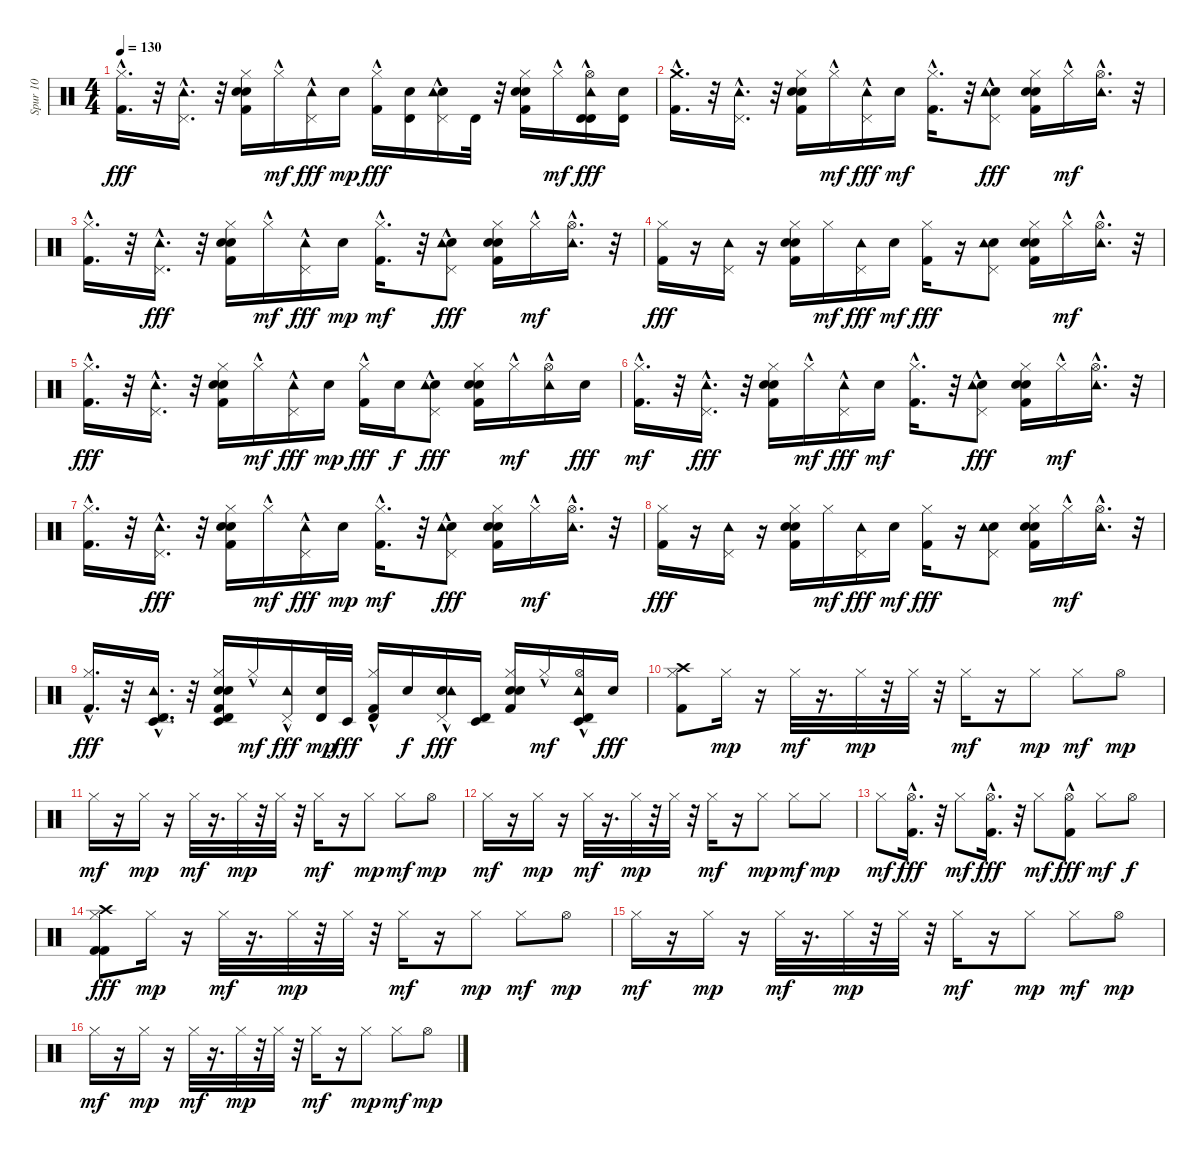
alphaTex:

\track ("Spur 10" "Spur 10") {instrument percussion}
\staff {score}
\articulation defaults
\ts (4 4)
\tempo 130
\clef neutral
\ks c
("Hi-Hat (closed)"{hac} "Kick (hit) 2").16{d dy fff} r.32 ("Tambourine (hit)"{hac} "Pedal Hi-Hat (hit)"{hac}).16{d} r.32 ("Hand Clap (hit)" "Hi-Hat (closed)" "Snare (hit) 2" "Kick (hit) 2").16 "Hi-Hat (closed)"{hac}.16{dy mf} ("Tambourine (hit)"{hac} "Pedal Hi-Hat (hit)"{hac}).16{dy fff} "Electric Snare (hit)".16{dy mp} ("Hi-Hat (closed)"{hac} "Kick (hit) 2").16{dy fff} ("Snare (hit) 2" "Timbale high (hit)").16 ("Hand Clap (hit)" "Tambourine (hit)"{hac} "Pedal Hi-Hat (hit)"{hac}).16 "Timbale high (hit)".32 r.32 ("Hand Clap (hit)" "Snare (hit) 2" "Hi-Hat (closed)" "Kick (hit) 2").16 "Hi-Hat (closed)"{hac}.16{dy mf} ("Timbale high (hit)" "Tambourine (hit)"{hac} "Hi-Hat (open)"{hac} "Timbale high (hit)").16{dy fff} ("Snare (hit) 2" "Timbale high (hit)").16 |
("Crash medium (hit)"{hac} "Kick (hit) 2").16{d} r.32 ("Tambourine (hit)"{hac} "Pedal Hi-Hat (hit)"{hac}).16{d} r.32 ("Hand Clap (hit)" "Kick (hit) 2" "Hi-Hat (closed)" "Snare (hit) 2").16 "Hi-Hat (closed)"{hac}.16{dy mf} ("Tambourine (hit)"{hac} "Pedal Hi-Hat (hit)"{hac}).16{dy fff} "Electric Snare (hit)".16{dy mf} ("Kick (hit) 2" "Hi-Hat (closed)"{hac}).16{d} r.32 ("Hand Clap (hit)" "Tambourine (hit)"{hac} "Pedal Hi-Hat (hit)"{hac}).8{dy fff} ("Hand Clap (hit)" "Kick (hit) 2" "Hi-Hat (closed)" "Snare (hit) 2").16 "Hi-Hat (closed)"{hac}.16{dy mf} ("Tambourine (hit)"{hac} "Hi-Hat (open)"{hac}).16{d} r.32 |
("Kick (hit) 2" "Hi-Hat (closed)"{hac}).16{d} r.32 ("Tambourine (hit)"{hac} "Pedal Hi-Hat (hit)"{hac}).16{d dy fff} r.32 ("Hand Clap (hit)" "Hi-Hat (closed)" "Snare (hit) 2" "Kick (hit) 2").16 "Hi-Hat (closed)"{hac}.16{dy mf} ("Tambourine (hit)"{hac} "Pedal Hi-Hat (hit)"{hac}).16{dy fff} "Electric Snare (hit)".16{dy mp} ("Kick (hit) 2" "Hi-Hat (closed)"{hac}).16{d dy mf} r.32 ("Hand Clap (hit)" "Tambourine (hit)"{hac} "Pedal Hi-Hat (hit)"{hac}).8{dy fff} ("Hand Clap (hit)" "Hi-Hat (closed)" "Kick (hit) 2" "Snare (hit) 2").16 "Hi-Hat (closed)"{hac}.16{dy mf} ("Tambourine (hit)"{hac} "Hi-Hat (open)"{hac}).16{d} r.32 |
("Hi-Hat (closed)" "Kick (hit) 2").16{dy fff} r.16 ("Tambourine (hit)" "Pedal Hi-Hat (hit)").16 r.16 ("Hand Clap (hit)" "Snare (hit) 2" "Hi-Hat (closed)" "Kick (hit) 2").16 "Hi-Hat (closed)".16{dy mf} ("Tambourine (hit)" "Pedal Hi-Hat (hit)").16{dy fff} "Electric Snare (hit)".16{dy mf} ("Hi-Hat (closed)" "Kick (hit) 2").16{dy fff} r.16 ("Hand Clap (hit)" "Tambourine (hit)" "Pedal Hi-Hat (hit)").8 ("Hand Clap (hit)" "Snare (hit) 2" "Hi-Hat (closed)" "Kick (hit) 2").16 "Hi-Hat (closed)"{hac}.16{dy mf} ("Tambourine (hit)" "Hi-Hat (open)"{hac}).16{d} r.32 |
("Hi-Hat (closed)"{hac} "Kick (hit) 2").16{d dy fff} r.32 ("Tambourine (hit)"{hac} "Pedal Hi-Hat (hit)"{hac}).16{d} r.32 ("Hand Clap (hit)" "Hi-Hat (closed)" "Snare (hit) 2" "Kick (hit) 2").16 "Hi-Hat (closed)"{hac}.16{dy mf} ("Tambourine (hit)"{hac} "Pedal Hi-Hat (hit)"{hac}).16{dy fff} "Electric Snare (hit)".16{dy mp} ("Hi-Hat (closed)"{hac} "Kick (hit) 2").16{dy fff} "Snare (hit) 2".16{dy f} ("Hand Clap (hit)" "Tambourine (hit)"{hac} "Pedal Hi-Hat (hit)"{hac}).8{dy fff} ("Hand Clap (hit)" "Snare (hit) 2" "Hi-Hat (closed)" "Kick (hit) 2").16 "Hi-Hat (closed)"{hac}.16{dy mf} ("Tambourine (hit)"{hac} "Hi-Hat (open)"{hac}).16 "Snare (hit) 2".16{dy fff} |
("Kick (hit) 2" "Hi-Hat (closed)"{hac}).16{d dy mf} r.32 ("Tambourine (hit)"{hac} "Pedal Hi-Hat (hit)"{hac}).16{d dy fff} r.32 ("Hand Clap (hit)" "Kick (hit) 2" "Hi-Hat (closed)" "Snare (hit) 2").16 "Hi-Hat (closed)"{hac}.16{dy mf} ("Tambourine (hit)"{hac} "Pedal Hi-Hat (hit)"{hac}).16{dy fff} "Electric Snare (hit)".16{dy mf} ("Kick (hit) 2" "Hi-Hat (closed)"{hac}).16{d} r.32 ("Hand Clap (hit)" "Tambourine (hit)"{hac} "Pedal Hi-Hat (hit)"{hac}).8{dy fff} ("Hand Clap (hit)" "Kick (hit) 2" "Hi-Hat (closed)" "Snare (hit) 2").16 "Hi-Hat (closed)"{hac}.16{dy mf} ("Tambourine (hit)"{hac} "Hi-Hat (open)"{hac}).16{d} r.32 |
("Kick (hit) 2" "Hi-Hat (closed)"{hac}).16{d} r.32 ("Tambourine (hit)"{hac} "Pedal Hi-Hat (hit)"{hac}).16{d dy fff} r.32 ("Hand Clap (hit)" "Hi-Hat (closed)" "Snare (hit) 2" "Kick (hit) 2").16 "Hi-Hat (closed)"{hac}.16{dy mf} ("Tambourine (hit)"{hac} "Pedal Hi-Hat (hit)"{hac}).16{dy fff} "Electric Snare (hit)".16{dy mp} ("Kick (hit) 2" "Hi-Hat (closed)"{hac}).16{d dy mf} r.32 ("Hand Clap (hit)" "Tambourine (hit)"{hac} "Pedal Hi-Hat (hit)"{hac}).8{dy fff} ("Hand Clap (hit)" "Hi-Hat (closed)" "Kick (hit) 2" "Snare (hit) 2").16 "Hi-Hat (closed)"{hac}.16{dy mf} ("Tambourine (hit)"{hac} "Hi-Hat (open)"{hac}).16{d} r.32 |
("Hi-Hat (closed)" "Kick (hit) 2").16{dy fff} r.16 ("Tambourine (hit)" "Pedal Hi-Hat (hit)").16 r.16 ("Hand Clap (hit)" "Snare (hit) 2" "Hi-Hat (closed)" "Kick (hit) 2").16 "Hi-Hat (closed)".16{dy mf} ("Tambourine (hit)" "Pedal Hi-Hat (hit)").16{dy fff} "Electric Snare (hit)".16{dy mf} ("Hi-Hat (closed)" "Kick (hit) 2").16{dy fff} r.16 ("Hand Clap (hit)" "Tambourine (hit)" "Pedal Hi-Hat (hit)").8 ("Hand Clap (hit)" "Snare (hit) 2" "Hi-Hat (closed)" "Kick (hit) 2").16 "Hi-Hat (closed)"{hac}.16{dy mf} ("Tambourine (hit)" "Hi-Hat (open)"{hac}).16{d} r.32 |
("Hi-Hat (closed)"{hac} "Kick (hit) 2").16{d dy fff} r.32 ("Tambourine (hit)"{hac} "Pedal Hi-Hat (hit)"{hac} "Timbale high (hit)" "Timbale low (hit)").16{d} r.32 ("Hand Clap (hit)" "Hi-Hat (closed)" "Snare (hit) 2" "Kick (hit) 2" "Timbale low (hit)" "Timbale high (hit)").16 "Hi-Hat (closed)"{hac}.16{dy mf} ("Tambourine (hit)"{hac} "Pedal Hi-Hat (hit)"{hac}).16{dy fff} ("Timbale high (hit)" "Electric Snare (hit)").32{dy mp} "Timbale low (hit)".32{dy fff} ("Timbale high (hit)" "Hi-Hat (closed)"{hac} "Kick (hit) 2").16 "Snare (hit) 2".16{dy f} ("Hand Clap (hit)" "Tambourine (hit)"{hac} "Pedal Hi-Hat (hit)"{hac}).16{dy fff} ("Timbale high (hit)" "Timbale low (hit)").16 ("Hand Clap (hit)" "Snare (hit) 2" "Hi-Hat (closed)" "Kick (hit) 2").16 "Hi-Hat (closed)"{hac}.16{dy mf} ("Timbale low (hit)" "Timbale high (hit)" "Tambourine (hit)"{hac} "Hi-Hat (open)"{hac}).16 "Snare (hit) 2".16{dy fff} |
("Crash high (hit)" "Hi-Hat (closed)" "Kick (hit) 2").8 "Hi-Hat (closed)".16{dy mp} r.16 "Hi-Hat (closed)".32{dy mf} r.16{d} "Hi-Hat (closed)".32{dy mp} r.32 "Hi-Hat (closed)".32 r.32 "Hi-Hat (closed)".16{dy mf} r.16 "Hi-Hat (closed)".8{dy mp} "Hi-Hat (closed)".8{dy mf} "Hi-Hat (open)".8{dy mp} |
"Hi-Hat (closed)".16{dy mf} r.16 "Hi-Hat (closed)".16{dy mp} r.16 "Hi-Hat (closed)".32{dy mf} r.16{d} "Hi-Hat (closed)".32{dy mp} r.32 "Hi-Hat (closed)".32 r.32 "Hi-Hat (closed)".16{dy mf} r.16 "Hi-Hat (closed)".8{dy mp} "Hi-Hat (closed)".8{dy mf} "Hi-Hat (open)".8{dy mp} |
"Hi-Hat (closed)".16{dy mf} r.16 "Hi-Hat (closed)".16{dy mp} r.16 "Hi-Hat (closed)".32{dy mf} r.16{d} "Hi-Hat (closed)".32{dy mp} r.32 "Hi-Hat (closed)".32 r.32 "Hi-Hat (closed)".16{dy mf} r.16 "Hi-Hat (closed)".8{dy mp} "Hi-Hat (closed)".8{dy mf} "Hi-Hat (closed)".8{dy mp} |
"Hi-Hat (closed)".8{dy mf} ("Hi-Hat (open)"{hac} "Kick (hit) 2"{hac}).16{d dy fff} r.32 "Hi-Hat (closed)".8{dy mf} ("Hi-Hat (open)"{hac} "Kick (hit) 2"{hac}).16{d dy fff} r.32 "Hi-Hat (closed)".8{dy mf} ("Kick (hit) 2" "Hi-Hat (open)"{hac}).8{dy fff} "Hi-Hat (closed)".8{dy mf} "Hi-Hat (open)".8{dy f} |
("Crash high (hit)" "Kick (hit) 2" "Hi-Hat (closed)" "Kick (hit) 2").8{dy fff} "Hi-Hat (closed)".16{dy mp} r.16 "Hi-Hat (closed)".32{dy mf} r.16{d} "Hi-Hat (closed)".32{dy mp} r.32 "Hi-Hat (closed)".32 r.32 "Hi-Hat (closed)".16{dy mf} r.16 "Hi-Hat (closed)".8{dy mp} "Hi-Hat (closed)".8{dy mf} "Hi-Hat (open)".8{dy mp} |
"Hi-Hat (closed)".16{dy mf} r.16 "Hi-Hat (closed)".16{dy mp} r.16 "Hi-Hat (closed)".32{dy mf} r.16{d} "Hi-Hat (closed)".32{dy mp} r.32 "Hi-Hat (closed)".32 r.32 "Hi-Hat (closed)".16{dy mf} r.16 "Hi-Hat (closed)".8{dy mp} "Hi-Hat (closed)".8{dy mf} "Hi-Hat (open)".8{dy mp} |
"Hi-Hat (closed)".16{dy mf} r.16 "Hi-Hat (closed)".16{dy mp} r.16 "Hi-Hat (closed)".32{dy mf} r.16{d} "Hi-Hat (closed)".32{dy mp} r.32 "Hi-Hat (closed)".32 r.32 "Hi-Hat (closed)".16{dy mf} r.16 "Hi-Hat (closed)".8{dy mp} "Hi-Hat (closed)".8{dy mf} "Hi-Hat (open)".8{dy mp}
